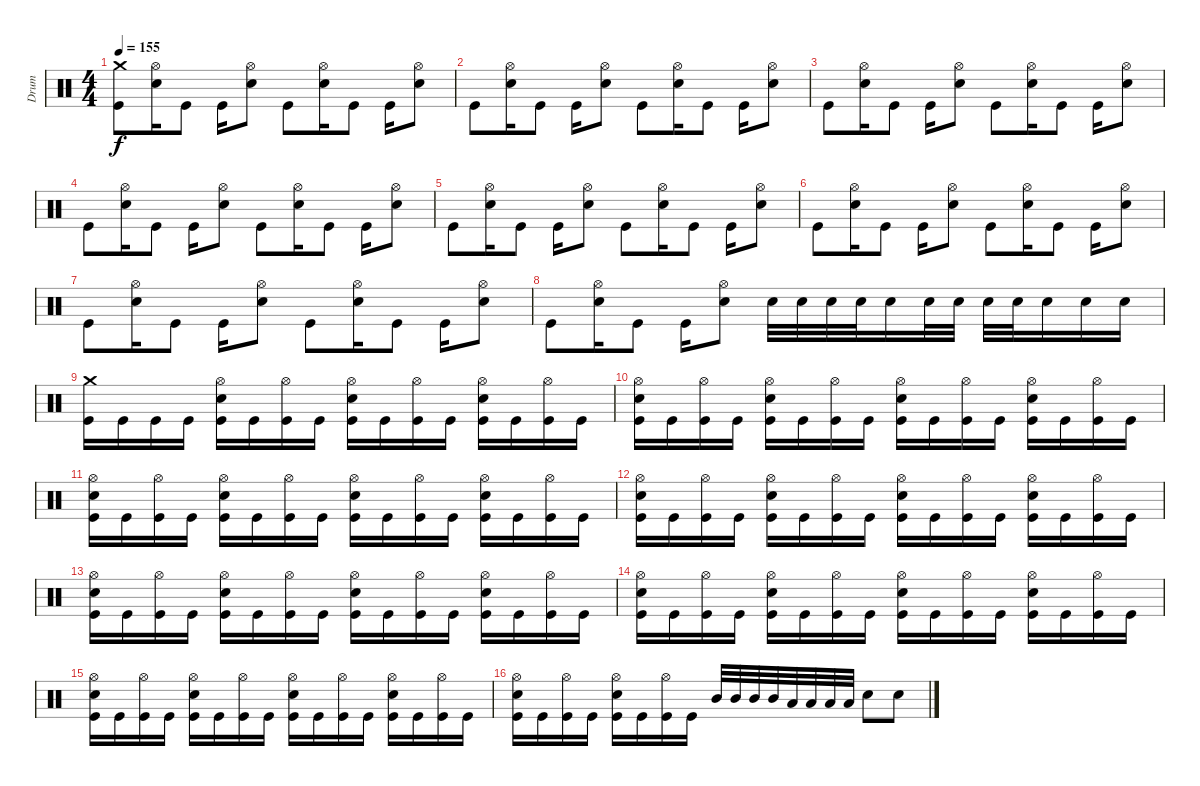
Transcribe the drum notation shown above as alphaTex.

\track ("Drum" "Drum") {instrument percussion}
\staff {score}
\articulation defaults
\ts (4 4)
\tempo 155
\clef neutral
\ks c
("Kick (hit)" "Crash medium (hit)").8{dy f} ("Electric Snare (hit)" "Hi-Hat (open)").16 "Kick (hit)".8 "Kick (hit)".16 ("Electric Snare (hit)" "Hi-Hat (open)").8 "Kick (hit)".8 ("Electric Snare (hit)" "Hi-Hat (open)").16 "Kick (hit)".8 "Kick (hit)".16 ("Electric Snare (hit)" "Hi-Hat (open)").8 |
"Kick (hit)".8 ("Electric Snare (hit)" "Hi-Hat (open)").16 "Kick (hit)".8 "Kick (hit)".16 ("Electric Snare (hit)" "Hi-Hat (open)").8 "Kick (hit)".8 ("Electric Snare (hit)" "Hi-Hat (open)").16 "Kick (hit)".8 "Kick (hit)".16 ("Electric Snare (hit)" "Hi-Hat (open)").8 |
"Kick (hit)".8 ("Electric Snare (hit)" "Hi-Hat (open)").16 "Kick (hit)".8 "Kick (hit)".16 ("Electric Snare (hit)" "Hi-Hat (open)").8 "Kick (hit)".8 ("Electric Snare (hit)" "Hi-Hat (open)").16 "Kick (hit)".8 "Kick (hit)".16 ("Electric Snare (hit)" "Hi-Hat (open)").8 |
"Kick (hit)".8 ("Electric Snare (hit)" "Hi-Hat (open)").16 "Kick (hit)".8 "Kick (hit)".16 ("Electric Snare (hit)" "Hi-Hat (open)").8 "Kick (hit)".8 ("Electric Snare (hit)" "Hi-Hat (open)").16 "Kick (hit)".8 "Kick (hit)".16 ("Electric Snare (hit)" "Hi-Hat (open)").8 |
"Kick (hit)".8 ("Electric Snare (hit)" "Hi-Hat (open)").16 "Kick (hit)".8 "Kick (hit)".16 ("Electric Snare (hit)" "Hi-Hat (open)").8 "Kick (hit)".8 ("Electric Snare (hit)" "Hi-Hat (open)").16 "Kick (hit)".8 "Kick (hit)".16 ("Electric Snare (hit)" "Hi-Hat (open)").8 |
"Kick (hit)".8 ("Electric Snare (hit)" "Hi-Hat (open)").16 "Kick (hit)".8 "Kick (hit)".16 ("Electric Snare (hit)" "Hi-Hat (open)").8 "Kick (hit)".8 ("Electric Snare (hit)" "Hi-Hat (open)").16 "Kick (hit)".8 "Kick (hit)".16 ("Electric Snare (hit)" "Hi-Hat (open)").8 |
"Kick (hit)".8 ("Electric Snare (hit)" "Hi-Hat (open)").16 "Kick (hit)".8 "Kick (hit)".16 ("Electric Snare (hit)" "Hi-Hat (open)").8 "Kick (hit)".8 ("Electric Snare (hit)" "Hi-Hat (open)").16 "Kick (hit)".8 "Kick (hit)".16 ("Electric Snare (hit)" "Hi-Hat (open)").8 |
"Kick (hit)".8 ("Electric Snare (hit)" "Hi-Hat (open)").16 "Kick (hit)".8 "Kick (hit)".16 ("Electric Snare (hit)" "Hi-Hat (open)").8 "Electric Snare (hit)".32 "Electric Snare (hit)".32 "Electric Snare (hit)".32 "Electric Snare (hit)".32 "Electric Snare (hit)".16 "Electric Snare (hit)".32 "Electric Snare (hit)".32 "Electric Snare (hit)".32 "Electric Snare (hit)".32 "Electric Snare (hit)".16 "Electric Snare (hit)".16 "Electric Snare (hit)".16 |
("Kick (hit)" "Crash medium (hit)").16 "Kick (hit)".16 "Kick (hit)".16 "Kick (hit)".16 ("Kick (hit)" "Electric Snare (hit)" "Hi-Hat (open)").16 "Kick (hit)".16 ("Kick (hit)" "Hi-Hat (open)").16 "Kick (hit)".16 ("Kick (hit)" "Electric Snare (hit)" "Hi-Hat (open)").16 "Kick (hit)".16 ("Kick (hit)" "Hi-Hat (open)").16 "Kick (hit)".16 ("Kick (hit)" "Electric Snare (hit)" "Hi-Hat (open)").16 "Kick (hit)".16 ("Kick (hit)" "Hi-Hat (open)").16 "Kick (hit)".16 |
("Kick (hit)" "Electric Snare (hit)" "Hi-Hat (open)").16 "Kick (hit)".16 ("Kick (hit)" "Hi-Hat (open)").16 "Kick (hit)".16 ("Kick (hit)" "Electric Snare (hit)" "Hi-Hat (open)").16 "Kick (hit)".16 ("Kick (hit)" "Hi-Hat (open)").16 "Kick (hit)".16 ("Kick (hit)" "Electric Snare (hit)" "Hi-Hat (open)").16 "Kick (hit)".16 ("Kick (hit)" "Hi-Hat (open)").16 "Kick (hit)".16 ("Kick (hit)" "Electric Snare (hit)" "Hi-Hat (open)").16 "Kick (hit)".16 ("Kick (hit)" "Hi-Hat (open)").16 "Kick (hit)".16 |
("Kick (hit)" "Electric Snare (hit)" "Hi-Hat (open)").16 "Kick (hit)".16 ("Kick (hit)" "Hi-Hat (open)").16 "Kick (hit)".16 ("Kick (hit)" "Electric Snare (hit)" "Hi-Hat (open)").16 "Kick (hit)".16 ("Kick (hit)" "Hi-Hat (open)").16 "Kick (hit)".16 ("Kick (hit)" "Electric Snare (hit)" "Hi-Hat (open)").16 "Kick (hit)".16 ("Kick (hit)" "Hi-Hat (open)").16 "Kick (hit)".16 ("Kick (hit)" "Electric Snare (hit)" "Hi-Hat (open)").16 "Kick (hit)".16 ("Kick (hit)" "Hi-Hat (open)").16 "Kick (hit)".16 |
("Kick (hit)" "Electric Snare (hit)" "Hi-Hat (open)").16 "Kick (hit)".16 ("Kick (hit)" "Hi-Hat (open)").16 "Kick (hit)".16 ("Kick (hit)" "Electric Snare (hit)" "Hi-Hat (open)").16 "Kick (hit)".16 ("Kick (hit)" "Hi-Hat (open)").16 "Kick (hit)".16 ("Kick (hit)" "Electric Snare (hit)" "Hi-Hat (open)").16 "Kick (hit)".16 ("Kick (hit)" "Hi-Hat (open)").16 "Kick (hit)".16 ("Kick (hit)" "Electric Snare (hit)" "Hi-Hat (open)").16 "Kick (hit)".16 ("Kick (hit)" "Hi-Hat (open)").16 "Kick (hit)".16 |
("Kick (hit)" "Electric Snare (hit)" "Hi-Hat (open)").16 "Kick (hit)".16 ("Kick (hit)" "Hi-Hat (open)").16 "Kick (hit)".16 ("Kick (hit)" "Electric Snare (hit)" "Hi-Hat (open)").16 "Kick (hit)".16 ("Kick (hit)" "Hi-Hat (open)").16 "Kick (hit)".16 ("Kick (hit)" "Electric Snare (hit)" "Hi-Hat (open)").16 "Kick (hit)".16 ("Kick (hit)" "Hi-Hat (open)").16 "Kick (hit)".16 ("Kick (hit)" "Electric Snare (hit)" "Hi-Hat (open)").16 "Kick (hit)".16 ("Kick (hit)" "Hi-Hat (open)").16 "Kick (hit)".16 |
("Kick (hit)" "Electric Snare (hit)" "Hi-Hat (open)").16 "Kick (hit)".16 ("Kick (hit)" "Hi-Hat (open)").16 "Kick (hit)".16 ("Kick (hit)" "Electric Snare (hit)" "Hi-Hat (open)").16 "Kick (hit)".16 ("Kick (hit)" "Hi-Hat (open)").16 "Kick (hit)".16 ("Kick (hit)" "Electric Snare (hit)" "Hi-Hat (open)").16 "Kick (hit)".16 ("Kick (hit)" "Hi-Hat (open)").16 "Kick (hit)".16 ("Kick (hit)" "Electric Snare (hit)" "Hi-Hat (open)").16 "Kick (hit)".16 ("Kick (hit)" "Hi-Hat (open)").16 "Kick (hit)".16 |
("Kick (hit)" "Electric Snare (hit)" "Hi-Hat (open)").16 "Kick (hit)".16 ("Kick (hit)" "Hi-Hat (open)").16 "Kick (hit)".16 ("Kick (hit)" "Electric Snare (hit)" "Hi-Hat (open)").16 "Kick (hit)".16 ("Kick (hit)" "Hi-Hat (open)").16 "Kick (hit)".16 ("Kick (hit)" "Electric Snare (hit)" "Hi-Hat (open)").16 "Kick (hit)".16 ("Kick (hit)" "Hi-Hat (open)").16 "Kick (hit)".16 ("Kick (hit)" "Electric Snare (hit)" "Hi-Hat (open)").16 "Kick (hit)".16 ("Kick (hit)" "Hi-Hat (open)").16 "Kick (hit)".16 |
("Kick (hit)" "Electric Snare (hit)" "Hi-Hat (open)").16 "Kick (hit)".16 ("Kick (hit)" "Hi-Hat (open)").16 "Kick (hit)".16 ("Kick (hit)" "Electric Snare (hit)" "Hi-Hat (open)").16 "Kick (hit)".16 ("Kick (hit)" "Hi-Hat (open)").16 "Kick (hit)".16 "Mid Tom (hit)".32 "Mid Tom (hit)".32 "Mid Tom (hit)".32 "Mid Tom (hit)".32 "Low Tom (hit)".32 "Low Tom (hit)".32 "Low Tom (hit)".32 "Low Tom (hit)".32 "Electric Snare (hit)".8 "Electric Snare (hit)".8
